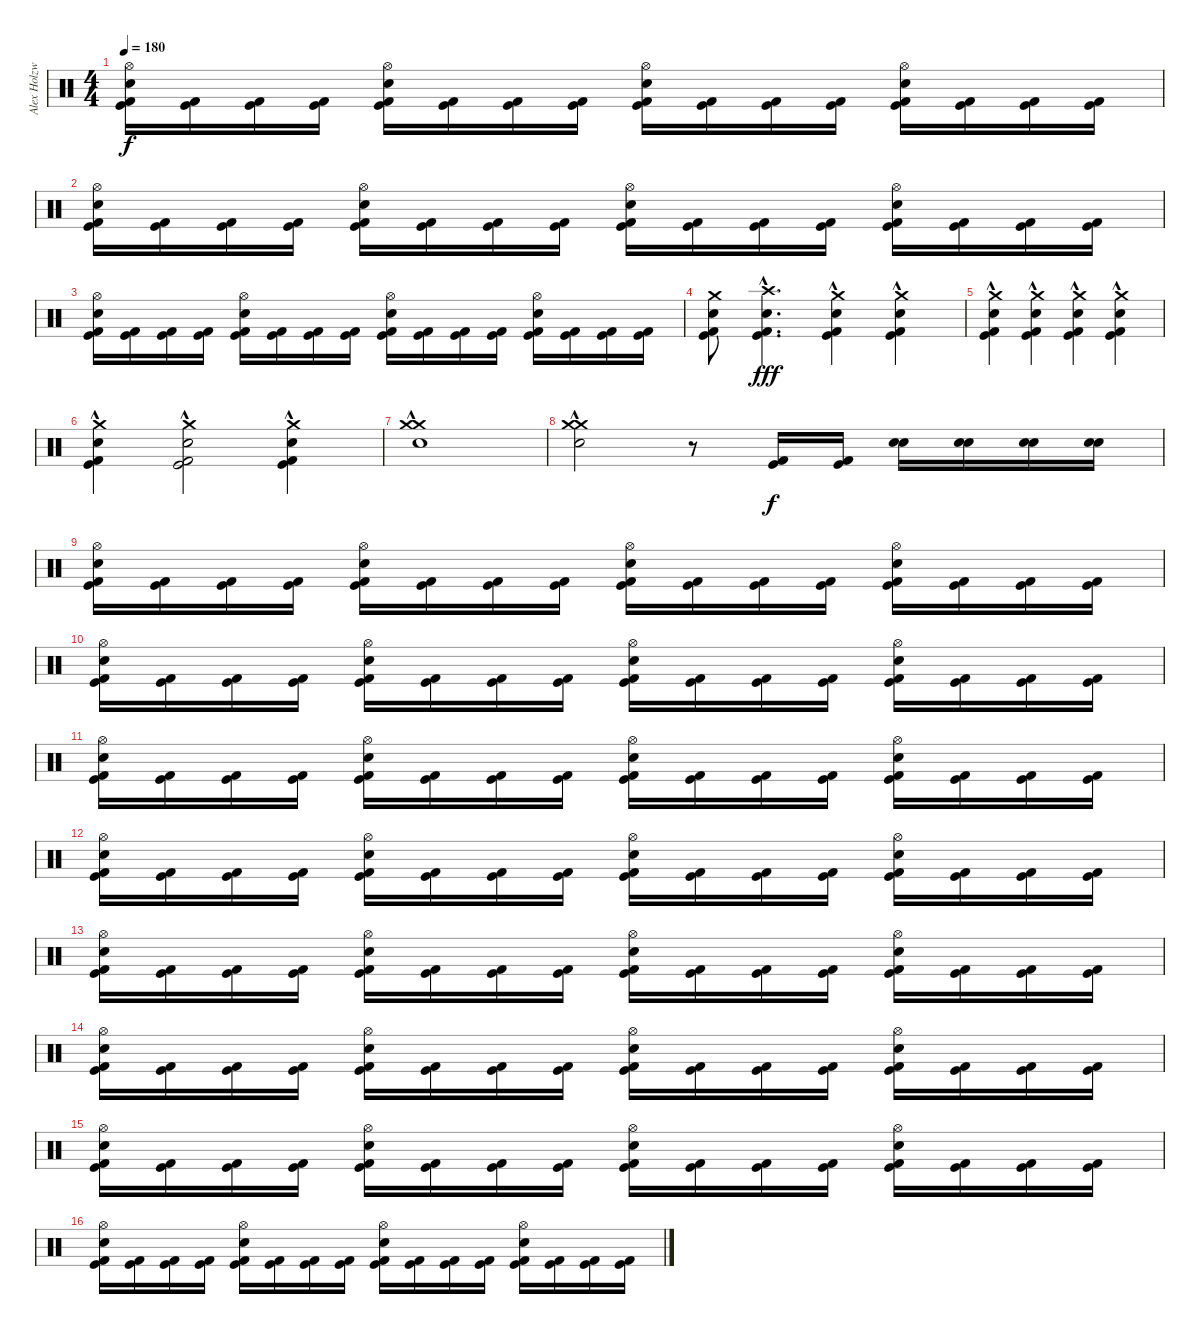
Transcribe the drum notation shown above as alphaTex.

\track ("Alex Holzwarth" "Alex Holzw") {instrument percussion}
\staff {score}
\articulation defaults
\ts (4 4)
\tempo 180
\clef neutral
\ks c
("Kick (hit) 2" "Kick (hit)" "Snare (hit) 2" "Hi-Hat (open)").16{dy f} ("Kick (hit) 2" "Kick (hit)").16 ("Kick (hit) 2" "Kick (hit)").16 ("Kick (hit) 2" "Kick (hit)").16 ("Kick (hit) 2" "Kick (hit)" "Hi-Hat (open)" "Snare (hit) 2").16 ("Kick (hit) 2" "Kick (hit)").16 ("Kick (hit) 2" "Kick (hit)").16 ("Kick (hit) 2" "Kick (hit)").16 ("Kick (hit) 2" "Kick (hit)" "Hi-Hat (open)" "Snare (hit) 2").16 ("Kick (hit) 2" "Kick (hit)").16 ("Kick (hit) 2" "Kick (hit)").16 ("Kick (hit) 2" "Kick (hit)").16 ("Kick (hit) 2" "Kick (hit)" "Hi-Hat (open)" "Snare (hit) 2").16 ("Kick (hit) 2" "Kick (hit)").16 ("Kick (hit) 2" "Kick (hit)").16 ("Kick (hit) 2" "Kick (hit)").16 |
("Kick (hit) 2" "Kick (hit)" "Snare (hit) 2" "Hi-Hat (open)").16 ("Kick (hit) 2" "Kick (hit)").16 ("Kick (hit) 2" "Kick (hit)").16 ("Kick (hit) 2" "Kick (hit)").16 ("Kick (hit) 2" "Kick (hit)" "Hi-Hat (open)" "Snare (hit) 2").16 ("Kick (hit) 2" "Kick (hit)").16 ("Kick (hit) 2" "Kick (hit)").16 ("Kick (hit) 2" "Kick (hit)").16 ("Kick (hit) 2" "Kick (hit)" "Hi-Hat (open)" "Snare (hit) 2").16 ("Kick (hit) 2" "Kick (hit)").16 ("Kick (hit) 2" "Kick (hit)").16 ("Kick (hit) 2" "Kick (hit)").16 ("Kick (hit) 2" "Kick (hit)" "Hi-Hat (open)" "Snare (hit) 2").16 ("Kick (hit) 2" "Kick (hit)").16 ("Kick (hit) 2" "Kick (hit)").16 ("Kick (hit) 2" "Kick (hit)").16 |
("Kick (hit) 2" "Kick (hit)" "Snare (hit) 2" "Hi-Hat (open)").16 ("Kick (hit) 2" "Kick (hit)").16 ("Kick (hit) 2" "Kick (hit)").16 ("Kick (hit) 2" "Kick (hit)").16 ("Kick (hit) 2" "Kick (hit)" "Hi-Hat (open)" "Snare (hit) 2").16 ("Kick (hit) 2" "Kick (hit)").16 ("Kick (hit) 2" "Kick (hit)").16 ("Kick (hit) 2" "Kick (hit)").16 ("Kick (hit) 2" "Kick (hit)" "Hi-Hat (open)" "Snare (hit) 2").16 ("Kick (hit) 2" "Kick (hit)").16 ("Kick (hit) 2" "Kick (hit)").16 ("Kick (hit) 2" "Kick (hit)").16 ("Kick (hit) 2" "Kick (hit)" "Hi-Hat (open)" "Snare (hit) 2").16 ("Kick (hit) 2" "Kick (hit)").16 ("Kick (hit) 2" "Kick (hit)").16 ("Kick (hit) 2" "Kick (hit)").16 |
("Kick (hit) 2" "Kick (hit)" "Snare (hit) 2" "Crash medium (hit)").8 ("Kick (hit)" "Kick (hit) 2" "Snare (hit) 2" "Crash high (hit)"{hac}).4{d dy fff} ("Kick (hit) 2" "Kick (hit)" "Snare (hit) 2" "Crash medium (hit)"{hac}).4 ("Kick (hit) 2" "Kick (hit)" "Snare (hit) 2" "Crash medium (hit)"{hac}).4 |
("Kick (hit) 2" "Kick (hit)" "Snare (hit) 2" "Crash medium (hit)"{hac}).4 ("Kick (hit) 2" "Kick (hit)" "Snare (hit) 2" "Crash medium (hit)"{hac}).4 ("Kick (hit) 2" "Kick (hit)" "Snare (hit) 2" "Crash medium (hit)"{hac}).4 ("Kick (hit) 2" "Kick (hit)" "Snare (hit) 2" "Crash medium (hit)"{hac}).4 |
("Kick (hit) 2" "Kick (hit)" "Snare (hit) 2" "Crash medium (hit)"{hac}).4 ("Kick (hit) 2" "Kick (hit)" "Snare (hit) 2" "Crash medium (hit)"{hac}).2 ("Kick (hit) 2" "Kick (hit)" "Snare (hit) 2" "Crash medium (hit)"{hac}).4 |
("Crash medium (hit)"{hac} "Snare (hit) 2" "Crash medium (hit)"{hac}).1{volume 16} |
("Snare (hit) 2" "Crash medium (hit)"{hac} "Crash medium (hit)"{hac}).2 r.8 ("Kick (hit) 2" "Kick (hit)").16{dy f} ("Kick (hit) 2" "Kick (hit)").16 ("Snare (hit) 2" "Electric Snare (hit)").16 ("Snare (hit) 2" "Electric Snare (hit)").16 ("Snare (hit) 2" "Electric Snare (hit)").16 ("Snare (hit) 2" "Electric Snare (hit)").16 |
("Kick (hit) 2" "Kick (hit)" "Snare (hit) 2" "Hi-Hat (open)").16 ("Kick (hit) 2" "Kick (hit)").16 ("Kick (hit) 2" "Kick (hit)").16 ("Kick (hit) 2" "Kick (hit)").16 ("Kick (hit) 2" "Kick (hit)" "Hi-Hat (open)" "Snare (hit) 2").16 ("Kick (hit) 2" "Kick (hit)").16 ("Kick (hit) 2" "Kick (hit)").16 ("Kick (hit) 2" "Kick (hit)").16 ("Kick (hit) 2" "Kick (hit)" "Hi-Hat (open)" "Snare (hit) 2").16 ("Kick (hit) 2" "Kick (hit)").16 ("Kick (hit) 2" "Kick (hit)").16 ("Kick (hit) 2" "Kick (hit)").16 ("Kick (hit) 2" "Kick (hit)" "Hi-Hat (open)" "Snare (hit) 2").16 ("Kick (hit) 2" "Kick (hit)").16 ("Kick (hit) 2" "Kick (hit)").16 ("Kick (hit) 2" "Kick (hit)").16 |
("Kick (hit) 2" "Kick (hit)" "Snare (hit) 2" "Hi-Hat (open)").16 ("Kick (hit) 2" "Kick (hit)").16 ("Kick (hit) 2" "Kick (hit)").16 ("Kick (hit) 2" "Kick (hit)").16 ("Kick (hit) 2" "Kick (hit)" "Hi-Hat (open)" "Snare (hit) 2").16 ("Kick (hit) 2" "Kick (hit)").16 ("Kick (hit) 2" "Kick (hit)").16 ("Kick (hit) 2" "Kick (hit)").16 ("Kick (hit) 2" "Kick (hit)" "Hi-Hat (open)" "Snare (hit) 2").16 ("Kick (hit) 2" "Kick (hit)").16 ("Kick (hit) 2" "Kick (hit)").16 ("Kick (hit) 2" "Kick (hit)").16 ("Kick (hit) 2" "Kick (hit)" "Hi-Hat (open)" "Snare (hit) 2").16 ("Kick (hit) 2" "Kick (hit)").16 ("Kick (hit) 2" "Kick (hit)").16 ("Kick (hit) 2" "Kick (hit)").16 |
("Kick (hit) 2" "Kick (hit)" "Snare (hit) 2" "Hi-Hat (open)").16 ("Kick (hit) 2" "Kick (hit)").16 ("Kick (hit) 2" "Kick (hit)").16 ("Kick (hit) 2" "Kick (hit)").16 ("Kick (hit) 2" "Kick (hit)" "Hi-Hat (open)" "Snare (hit) 2").16 ("Kick (hit) 2" "Kick (hit)").16 ("Kick (hit) 2" "Kick (hit)").16 ("Kick (hit) 2" "Kick (hit)").16 ("Kick (hit) 2" "Kick (hit)" "Hi-Hat (open)" "Snare (hit) 2").16 ("Kick (hit) 2" "Kick (hit)").16 ("Kick (hit) 2" "Kick (hit)").16 ("Kick (hit) 2" "Kick (hit)").16 ("Kick (hit) 2" "Kick (hit)" "Hi-Hat (open)" "Snare (hit) 2").16 ("Kick (hit) 2" "Kick (hit)").16 ("Kick (hit) 2" "Kick (hit)").16 ("Kick (hit) 2" "Kick (hit)").16 |
("Kick (hit) 2" "Kick (hit)" "Snare (hit) 2" "Hi-Hat (open)").16 ("Kick (hit) 2" "Kick (hit)").16 ("Kick (hit) 2" "Kick (hit)").16 ("Kick (hit) 2" "Kick (hit)").16 ("Kick (hit) 2" "Kick (hit)" "Hi-Hat (open)" "Snare (hit) 2").16 ("Kick (hit) 2" "Kick (hit)").16 ("Kick (hit) 2" "Kick (hit)").16 ("Kick (hit) 2" "Kick (hit)").16 ("Kick (hit) 2" "Kick (hit)" "Hi-Hat (open)" "Snare (hit) 2").16 ("Kick (hit) 2" "Kick (hit)").16 ("Kick (hit) 2" "Kick (hit)").16 ("Kick (hit) 2" "Kick (hit)").16 ("Kick (hit) 2" "Kick (hit)" "Hi-Hat (open)" "Snare (hit) 2").16 ("Kick (hit) 2" "Kick (hit)").16 ("Kick (hit) 2" "Kick (hit)").16 ("Kick (hit) 2" "Kick (hit)").16 |
("Kick (hit) 2" "Kick (hit)" "Snare (hit) 2" "Hi-Hat (open)").16 ("Kick (hit) 2" "Kick (hit)").16 ("Kick (hit) 2" "Kick (hit)").16 ("Kick (hit) 2" "Kick (hit)").16 ("Kick (hit) 2" "Kick (hit)" "Hi-Hat (open)" "Snare (hit) 2").16 ("Kick (hit) 2" "Kick (hit)").16 ("Kick (hit) 2" "Kick (hit)").16 ("Kick (hit) 2" "Kick (hit)").16 ("Kick (hit) 2" "Kick (hit)" "Hi-Hat (open)" "Snare (hit) 2").16 ("Kick (hit) 2" "Kick (hit)").16 ("Kick (hit) 2" "Kick (hit)").16 ("Kick (hit) 2" "Kick (hit)").16 ("Kick (hit) 2" "Kick (hit)" "Hi-Hat (open)" "Snare (hit) 2").16 ("Kick (hit) 2" "Kick (hit)").16 ("Kick (hit) 2" "Kick (hit)").16 ("Kick (hit) 2" "Kick (hit)").16 |
("Kick (hit) 2" "Kick (hit)" "Snare (hit) 2" "Hi-Hat (open)").16 ("Kick (hit) 2" "Kick (hit)").16 ("Kick (hit) 2" "Kick (hit)").16 ("Kick (hit) 2" "Kick (hit)").16 ("Kick (hit) 2" "Kick (hit)" "Hi-Hat (open)" "Snare (hit) 2").16 ("Kick (hit) 2" "Kick (hit)").16 ("Kick (hit) 2" "Kick (hit)").16 ("Kick (hit) 2" "Kick (hit)").16 ("Kick (hit) 2" "Kick (hit)" "Hi-Hat (open)" "Snare (hit) 2").16 ("Kick (hit) 2" "Kick (hit)").16 ("Kick (hit) 2" "Kick (hit)").16 ("Kick (hit) 2" "Kick (hit)").16 ("Kick (hit) 2" "Kick (hit)" "Hi-Hat (open)" "Snare (hit) 2").16 ("Kick (hit) 2" "Kick (hit)").16 ("Kick (hit) 2" "Kick (hit)").16 ("Kick (hit) 2" "Kick (hit)").16 |
("Kick (hit) 2" "Kick (hit)" "Snare (hit) 2" "Hi-Hat (open)").16 ("Kick (hit) 2" "Kick (hit)").16 ("Kick (hit) 2" "Kick (hit)").16 ("Kick (hit) 2" "Kick (hit)").16 ("Kick (hit) 2" "Kick (hit)" "Hi-Hat (open)" "Snare (hit) 2").16 ("Kick (hit) 2" "Kick (hit)").16 ("Kick (hit) 2" "Kick (hit)").16 ("Kick (hit) 2" "Kick (hit)").16 ("Kick (hit) 2" "Kick (hit)" "Hi-Hat (open)" "Snare (hit) 2").16 ("Kick (hit) 2" "Kick (hit)").16 ("Kick (hit) 2" "Kick (hit)").16 ("Kick (hit) 2" "Kick (hit)").16 ("Kick (hit) 2" "Kick (hit)" "Hi-Hat (open)" "Snare (hit) 2").16 ("Kick (hit) 2" "Kick (hit)").16 ("Kick (hit) 2" "Kick (hit)").16 ("Kick (hit) 2" "Kick (hit)").16 |
("Kick (hit) 2" "Kick (hit)" "Snare (hit) 2" "Hi-Hat (open)").16 ("Kick (hit) 2" "Kick (hit)").16 ("Kick (hit) 2" "Kick (hit)").16 ("Kick (hit) 2" "Kick (hit)").16 ("Kick (hit) 2" "Kick (hit)" "Hi-Hat (open)" "Snare (hit) 2").16 ("Kick (hit) 2" "Kick (hit)").16 ("Kick (hit) 2" "Kick (hit)").16 ("Kick (hit) 2" "Kick (hit)").16 ("Kick (hit) 2" "Kick (hit)" "Hi-Hat (open)" "Snare (hit) 2").16 ("Kick (hit) 2" "Kick (hit)").16 ("Kick (hit) 2" "Kick (hit)").16 ("Kick (hit) 2" "Kick (hit)").16 ("Kick (hit) 2" "Kick (hit)" "Hi-Hat (open)" "Snare (hit) 2").16 ("Kick (hit) 2" "Kick (hit)").16 ("Kick (hit) 2" "Kick (hit)").16 ("Kick (hit) 2" "Kick (hit)").16
